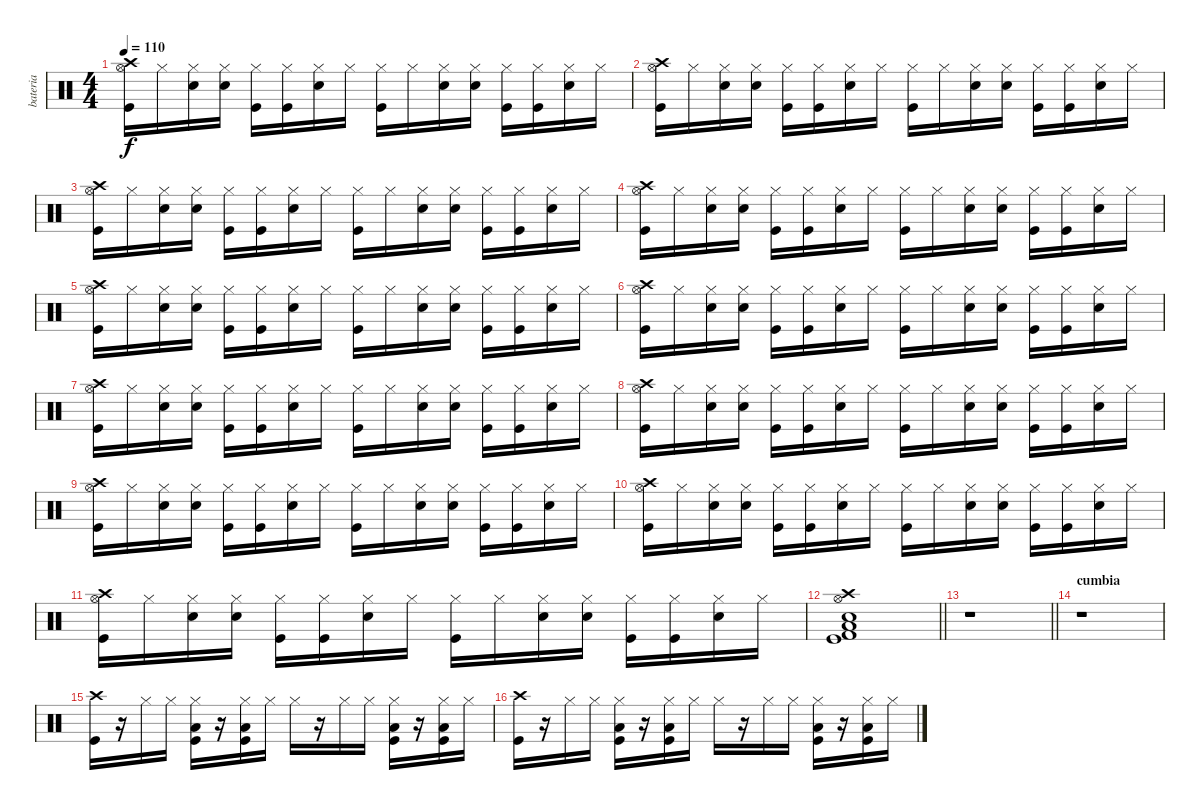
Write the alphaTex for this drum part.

\track ("bateria" "bateria") {instrument percussion}
\staff {score}
\articulation defaults
\ts (4 4)
\tempo 110
\clef neutral
\ks c
("Crash high (hit)" "Hi-Hat (open)" "Kick (hit)").16{dy f} "Hi-Hat (closed)".16 ("Hi-Hat (closed)" "Snare (hit) 2").16 ("Hi-Hat (closed)" "Snare (hit) 2").16 ("Hi-Hat (closed)" "Kick (hit)").16 ("Hi-Hat (closed)" "Kick (hit)").16 ("Hi-Hat (closed)" "Snare (hit) 2").16 "Hi-Hat (closed)".16 ("Hi-Hat (closed)" "Kick (hit)").16 "Hi-Hat (closed)".16 ("Hi-Hat (closed)" "Snare (hit) 2").16 ("Hi-Hat (closed)" "Snare (hit) 2").16 ("Hi-Hat (closed)" "Kick (hit)").16 ("Hi-Hat (closed)" "Kick (hit)").16 ("Hi-Hat (closed)" "Snare (hit) 2").16 "Hi-Hat (closed)".16 |
("Crash high (hit)" "Hi-Hat (open)" "Kick (hit)").16 "Hi-Hat (closed)".16 ("Hi-Hat (closed)" "Snare (hit) 2").16 ("Hi-Hat (closed)" "Snare (hit) 2").16 ("Hi-Hat (closed)" "Kick (hit)").16 ("Hi-Hat (closed)" "Kick (hit)").16 ("Hi-Hat (closed)" "Snare (hit) 2").16 "Hi-Hat (closed)".16 ("Hi-Hat (closed)" "Kick (hit)").16 "Hi-Hat (closed)".16 ("Hi-Hat (closed)" "Snare (hit) 2").16 ("Hi-Hat (closed)" "Snare (hit) 2").16 ("Hi-Hat (closed)" "Kick (hit)").16 ("Hi-Hat (closed)" "Kick (hit)").16 ("Hi-Hat (closed)" "Snare (hit) 2").16 "Hi-Hat (closed)".16 |
("Crash high (hit)" "Hi-Hat (open)" "Kick (hit)").16 "Hi-Hat (closed)".16 ("Hi-Hat (closed)" "Snare (hit) 2").16 ("Hi-Hat (closed)" "Snare (hit) 2").16 ("Hi-Hat (closed)" "Kick (hit)").16 ("Hi-Hat (closed)" "Kick (hit)").16 ("Hi-Hat (closed)" "Snare (hit) 2").16 "Hi-Hat (closed)".16 ("Hi-Hat (closed)" "Kick (hit)").16 "Hi-Hat (closed)".16 ("Hi-Hat (closed)" "Snare (hit) 2").16 ("Hi-Hat (closed)" "Snare (hit) 2").16 ("Hi-Hat (closed)" "Kick (hit)").16 ("Hi-Hat (closed)" "Kick (hit)").16 ("Hi-Hat (closed)" "Snare (hit) 2").16 "Hi-Hat (closed)".16 |
("Crash high (hit)" "Hi-Hat (open)" "Kick (hit)").16 "Hi-Hat (closed)".16 ("Hi-Hat (closed)" "Snare (hit) 2").16 ("Hi-Hat (closed)" "Snare (hit) 2").16 ("Hi-Hat (closed)" "Kick (hit)").16 ("Hi-Hat (closed)" "Kick (hit)").16 ("Hi-Hat (closed)" "Snare (hit) 2").16 "Hi-Hat (closed)".16 ("Hi-Hat (closed)" "Kick (hit)").16 "Hi-Hat (closed)".16 ("Hi-Hat (closed)" "Snare (hit) 2").16 ("Hi-Hat (closed)" "Snare (hit) 2").16 ("Hi-Hat (closed)" "Kick (hit)").16 ("Hi-Hat (closed)" "Kick (hit)").16 ("Hi-Hat (closed)" "Snare (hit) 2").16 "Hi-Hat (closed)".16 |
("Crash high (hit)" "Hi-Hat (open)" "Kick (hit)").16 "Hi-Hat (closed)".16 ("Hi-Hat (closed)" "Snare (hit) 2").16 ("Hi-Hat (closed)" "Snare (hit) 2").16 ("Hi-Hat (closed)" "Kick (hit)").16 ("Hi-Hat (closed)" "Kick (hit)").16 ("Hi-Hat (closed)" "Snare (hit) 2").16 "Hi-Hat (closed)".16 ("Hi-Hat (closed)" "Kick (hit)").16 "Hi-Hat (closed)".16 ("Hi-Hat (closed)" "Snare (hit) 2").16 ("Hi-Hat (closed)" "Snare (hit) 2").16 ("Hi-Hat (closed)" "Kick (hit)").16 ("Hi-Hat (closed)" "Kick (hit)").16 ("Hi-Hat (closed)" "Snare (hit) 2").16 "Hi-Hat (closed)".16 |
("Crash high (hit)" "Hi-Hat (open)" "Kick (hit)").16 "Hi-Hat (closed)".16 ("Hi-Hat (closed)" "Snare (hit) 2").16 ("Hi-Hat (closed)" "Snare (hit) 2").16 ("Hi-Hat (closed)" "Kick (hit)").16 ("Hi-Hat (closed)" "Kick (hit)").16 ("Hi-Hat (closed)" "Snare (hit) 2").16 "Hi-Hat (closed)".16 ("Hi-Hat (closed)" "Kick (hit)").16 "Hi-Hat (closed)".16 ("Hi-Hat (closed)" "Snare (hit) 2").16 ("Hi-Hat (closed)" "Snare (hit) 2").16 ("Hi-Hat (closed)" "Kick (hit)").16 ("Hi-Hat (closed)" "Kick (hit)").16 ("Hi-Hat (closed)" "Snare (hit) 2").16 "Hi-Hat (closed)".16 |
("Crash high (hit)" "Hi-Hat (open)" "Kick (hit)").16 "Hi-Hat (closed)".16 ("Hi-Hat (closed)" "Snare (hit) 2").16 ("Hi-Hat (closed)" "Snare (hit) 2").16 ("Hi-Hat (closed)" "Kick (hit)").16 ("Hi-Hat (closed)" "Kick (hit)").16 ("Hi-Hat (closed)" "Snare (hit) 2").16 "Hi-Hat (closed)".16 ("Hi-Hat (closed)" "Kick (hit)").16 "Hi-Hat (closed)".16 ("Hi-Hat (closed)" "Snare (hit) 2").16 ("Hi-Hat (closed)" "Snare (hit) 2").16 ("Hi-Hat (closed)" "Kick (hit)").16 ("Hi-Hat (closed)" "Kick (hit)").16 ("Hi-Hat (closed)" "Snare (hit) 2").16 "Hi-Hat (closed)".16 |
("Crash high (hit)" "Hi-Hat (open)" "Kick (hit)").16 "Hi-Hat (closed)".16 ("Hi-Hat (closed)" "Snare (hit) 2").16 ("Hi-Hat (closed)" "Snare (hit) 2").16 ("Hi-Hat (closed)" "Kick (hit)").16 ("Hi-Hat (closed)" "Kick (hit)").16 ("Hi-Hat (closed)" "Snare (hit) 2").16 "Hi-Hat (closed)".16 ("Hi-Hat (closed)" "Kick (hit)").16 "Hi-Hat (closed)".16 ("Hi-Hat (closed)" "Snare (hit) 2").16 ("Hi-Hat (closed)" "Snare (hit) 2").16 ("Hi-Hat (closed)" "Kick (hit)").16 ("Hi-Hat (closed)" "Kick (hit)").16 ("Hi-Hat (closed)" "Snare (hit) 2").16 "Hi-Hat (closed)".16 |
("Crash high (hit)" "Hi-Hat (open)" "Kick (hit)").16 "Hi-Hat (closed)".16 ("Hi-Hat (closed)" "Snare (hit) 2").16 ("Hi-Hat (closed)" "Snare (hit) 2").16 ("Hi-Hat (closed)" "Kick (hit)").16 ("Hi-Hat (closed)" "Kick (hit)").16 ("Hi-Hat (closed)" "Snare (hit) 2").16 "Hi-Hat (closed)".16 ("Hi-Hat (closed)" "Kick (hit)").16 "Hi-Hat (closed)".16 ("Hi-Hat (closed)" "Snare (hit) 2").16 ("Hi-Hat (closed)" "Snare (hit) 2").16 ("Hi-Hat (closed)" "Kick (hit)").16 ("Hi-Hat (closed)" "Kick (hit)").16 ("Hi-Hat (closed)" "Snare (hit) 2").16 "Hi-Hat (closed)".16 |
("Crash high (hit)" "Hi-Hat (open)" "Kick (hit)").16 "Hi-Hat (closed)".16 ("Hi-Hat (closed)" "Snare (hit) 2").16 ("Hi-Hat (closed)" "Snare (hit) 2").16 ("Hi-Hat (closed)" "Kick (hit)").16 ("Hi-Hat (closed)" "Kick (hit)").16 ("Hi-Hat (closed)" "Snare (hit) 2").16 "Hi-Hat (closed)".16 ("Hi-Hat (closed)" "Kick (hit)").16 "Hi-Hat (closed)".16 ("Hi-Hat (closed)" "Snare (hit) 2").16 ("Hi-Hat (closed)" "Snare (hit) 2").16 ("Hi-Hat (closed)" "Kick (hit)").16 ("Hi-Hat (closed)" "Kick (hit)").16 ("Hi-Hat (closed)" "Snare (hit) 2").16 "Hi-Hat (closed)".16 |
("Crash high (hit)" "Hi-Hat (open)" "Kick (hit)").16 "Hi-Hat (closed)".16 ("Hi-Hat (closed)" "Snare (hit) 2").16 ("Hi-Hat (closed)" "Snare (hit) 2").16 ("Hi-Hat (closed)" "Kick (hit)").16 ("Hi-Hat (closed)" "Kick (hit)").16 ("Hi-Hat (closed)" "Snare (hit) 2").16 "Hi-Hat (closed)".16 ("Hi-Hat (closed)" "Kick (hit)").16 "Hi-Hat (closed)".16 ("Hi-Hat (closed)" "Snare (hit) 2").16 ("Hi-Hat (closed)" "Snare (hit) 2").16 ("Hi-Hat (closed)" "Kick (hit)").16 ("Hi-Hat (closed)" "Kick (hit)").16 ("Hi-Hat (closed)" "Snare (hit) 2").16 "Hi-Hat (closed)".16 |
\barLineRight lightlight
("Crash high (hit)" "Kick (hit) 2" "Snare (hit) 2" "Low Floor Tom (hit)" "Hi-Hat (open)" "Kick (hit)").1 |
\barLineRight lightlight
r.1 |
\section ("" "cumbia")
r.1 |
("Crash high (hit)" "Kick (hit)").16 r.16 "Hi-Hat (closed)".16 "Hi-Hat (closed)".16 ("Hi-Hat (closed)" "Low Floor Tom (hit)" "Kick (hit)").16 r.16 ("Hi-Hat (closed)" "Low Floor Tom (hit)" "Kick (hit)").16 "Hi-Hat (closed)".16 "Hi-Hat (closed)".16 r.16 "Hi-Hat (closed)".16 "Hi-Hat (closed)".16 ("Hi-Hat (closed)" "Low Floor Tom (hit)" "Kick (hit)").16 r.16 ("Hi-Hat (closed)" "Low Floor Tom (hit)" "Kick (hit)").16 "Hi-Hat (closed)".16 |
("Crash high (hit)" "Kick (hit)").16 r.16 "Hi-Hat (closed)".16 "Hi-Hat (closed)".16 ("Hi-Hat (closed)" "Low Floor Tom (hit)" "Kick (hit)").16 r.16 ("Hi-Hat (closed)" "Low Floor Tom (hit)" "Kick (hit)").16 "Hi-Hat (closed)".16 "Hi-Hat (closed)".16 r.16 "Hi-Hat (closed)".16 "Hi-Hat (closed)".16 ("Hi-Hat (closed)" "Low Floor Tom (hit)" "Kick (hit)").16 r.16 ("Hi-Hat (closed)" "Low Floor Tom (hit)" "Kick (hit)").16 "Hi-Hat (closed)".16
